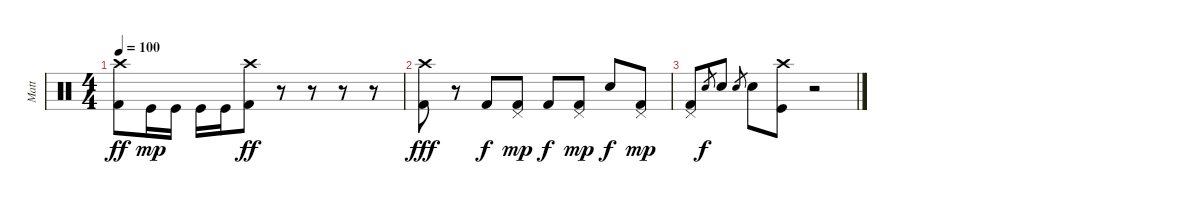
\track ("Matt" "Matt") {instrument percussion}
\staff {score}
\articulation defaults
\ts (4 4)
\tempo 100
\clef neutral
\ks c
("Kick (hit) 2" "Crash high (hit)").8{dy ff} "Kick (hit)".16{dy mp} "Kick (hit)".16 "Kick (hit)".16 "Kick (hit)".16 ("Kick (hit) 2" "Crash high (hit)").8{dy ff} r.8 r.8 r.8 r.8 |
("Kick (hit) 2" "Crash high (hit)").8{dy fff} r.8 "Kick (hit) 2".8{dy f} ("Kick (hit) 2" "Pedal Hi-Hat (hit)").8{dy mp} "Kick (hit) 2".8{dy f} ("Kick (hit) 2" "Pedal Hi-Hat (hit)").8{dy mp} "Electric Snare (hit)".8{dy f} ("Kick (hit) 2" "Pedal Hi-Hat (hit)").8{dy mp} |
("Kick (hit) 2" "Pedal Hi-Hat (hit)").8 "Electric Snare (hit)".8{gr dy f} "Electric Snare (hit)".8 "Electric Snare (hit)".8{gr} "Electric Snare (hit)".8 ("Kick (hit)" "Crash high (hit)").8 r.2
